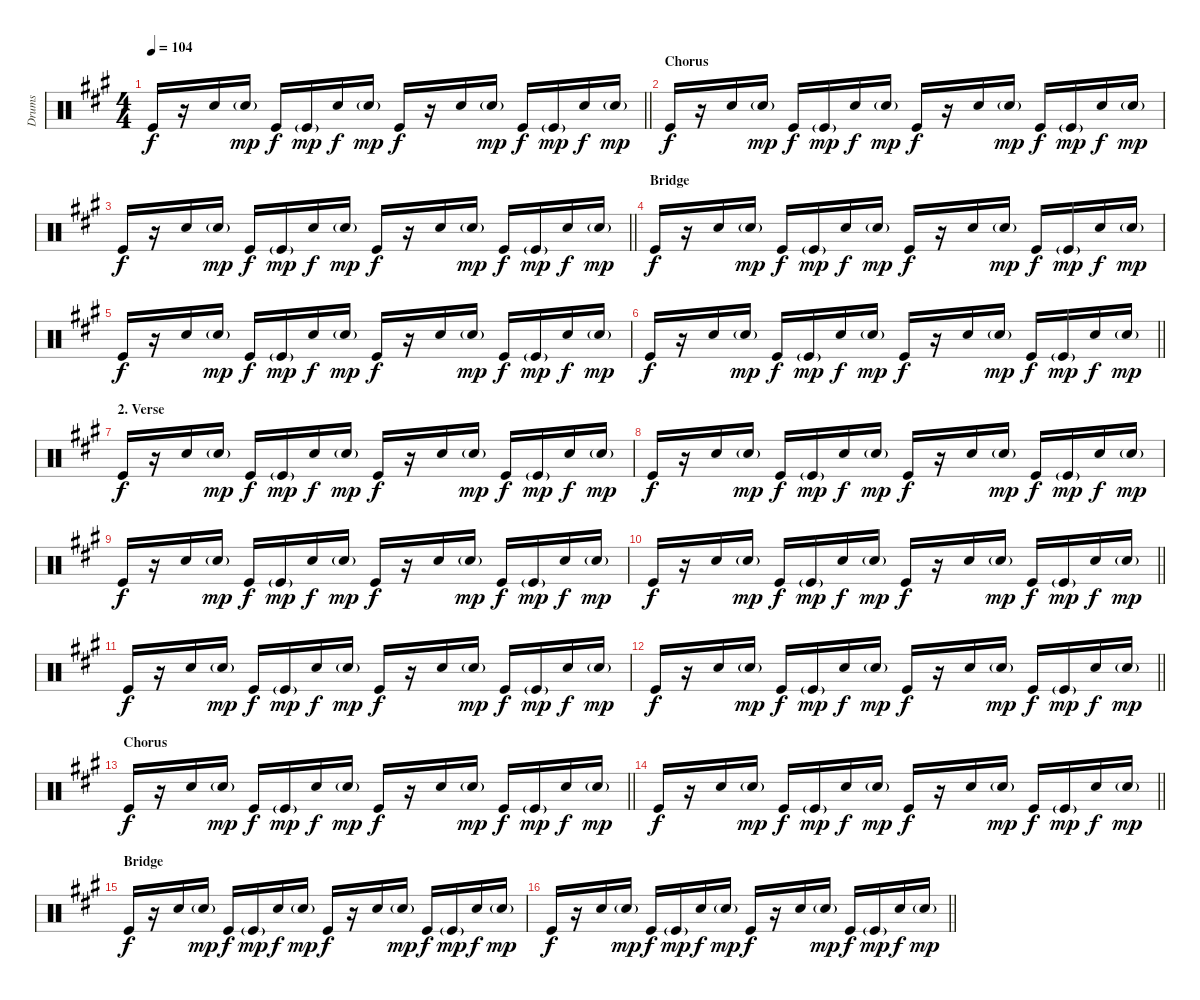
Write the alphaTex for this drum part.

\track ("Drums" "Drums") {instrument percussion}
\staff {score}
\articulation defaults
\ts (4 4)
\tempo 104
\clef neutral
\barLineRight lightlight
\ks a "Kick (hit)".16{dy f}
r.16 "Electric Snare (hit)".16 "Electric Snare (hit)"{g}.16{dy mp} "Kick (hit)".16{dy f} "Kick (hit)"{g}.16{dy mp} "Electric Snare (hit)".16{dy f} "Electric Snare (hit)"{g}.16{dy mp} "Kick (hit)".16{dy f} r.16 "Electric Snare (hit)".16 "Electric Snare (hit)"{g}.16{dy mp} "Kick (hit)".16{dy f} "Kick (hit)"{g}.16{dy mp} "Electric Snare (hit)".16{dy f} "Electric Snare (hit)"{g}.16{dy mp} |
\section ("" "Chorus")
"Kick (hit)".16{dy f} r.16 "Electric Snare (hit)".16 "Electric Snare (hit)"{g}.16{dy mp} "Kick (hit)".16{dy f} "Kick (hit)"{g}.16{dy mp} "Electric Snare (hit)".16{dy f} "Electric Snare (hit)"{g}.16{dy mp} "Kick (hit)".16{dy f} r.16 "Electric Snare (hit)".16 "Electric Snare (hit)"{g}.16{dy mp} "Kick (hit)".16{dy f} "Kick (hit)"{g}.16{dy mp} "Electric Snare (hit)".16{dy f} "Electric Snare (hit)"{g}.16{dy mp} |
\barLineRight lightlight "Kick (hit)".16{dy f}
r.16 "Electric Snare (hit)".16 "Electric Snare (hit)"{g}.16{dy mp} "Kick (hit)".16{dy f} "Kick (hit)"{g}.16{dy mp} "Electric Snare (hit)".16{dy f} "Electric Snare (hit)"{g}.16{dy mp} "Kick (hit)".16{dy f} r.16 "Electric Snare (hit)".16 "Electric Snare (hit)"{g}.16{dy mp} "Kick (hit)".16{dy f} "Kick (hit)"{g}.16{dy mp} "Electric Snare (hit)".16{dy f} "Electric Snare (hit)"{g}.16{dy mp} |
\section ("" "Bridge")
"Kick (hit)".16{dy f} r.16 "Electric Snare (hit)".16 "Electric Snare (hit)"{g}.16{dy mp} "Kick (hit)".16{dy f} "Kick (hit)"{g}.16{dy mp} "Electric Snare (hit)".16{dy f} "Electric Snare (hit)"{g}.16{dy mp} "Kick (hit)".16{dy f} r.16 "Electric Snare (hit)".16 "Electric Snare (hit)"{g}.16{dy mp} "Kick (hit)".16{dy f} "Kick (hit)"{g}.16{dy mp} "Electric Snare (hit)".16{dy f} "Electric Snare (hit)"{g}.16{dy mp} |
"Kick (hit)".16{dy f} r.16 "Electric Snare (hit)".16 "Electric Snare (hit)"{g}.16{dy mp} "Kick (hit)".16{dy f} "Kick (hit)"{g}.16{dy mp} "Electric Snare (hit)".16{dy f} "Electric Snare (hit)"{g}.16{dy mp} "Kick (hit)".16{dy f} r.16 "Electric Snare (hit)".16 "Electric Snare (hit)"{g}.16{dy mp} "Kick (hit)".16{dy f} "Kick (hit)"{g}.16{dy mp} "Electric Snare (hit)".16{dy f} "Electric Snare (hit)"{g}.16{dy mp} |
\barLineRight lightlight "Kick (hit)".16{dy f}
r.16 "Electric Snare (hit)".16 "Electric Snare (hit)"{g}.16{dy mp} "Kick (hit)".16{dy f} "Kick (hit)"{g}.16{dy mp} "Electric Snare (hit)".16{dy f} "Electric Snare (hit)"{g}.16{dy mp} "Kick (hit)".16{dy f} r.16 "Electric Snare (hit)".16 "Electric Snare (hit)"{g}.16{dy mp} "Kick (hit)".16{dy f} "Kick (hit)"{g}.16{dy mp} "Electric Snare (hit)".16{dy f} "Electric Snare (hit)"{g}.16{dy mp} |
\section ("" "2. Verse")
"Kick (hit)".16{dy f} r.16 "Electric Snare (hit)".16 "Electric Snare (hit)"{g}.16{dy mp} "Kick (hit)".16{dy f} "Kick (hit)"{g}.16{dy mp} "Electric Snare (hit)".16{dy f} "Electric Snare (hit)"{g}.16{dy mp} "Kick (hit)".16{dy f} r.16 "Electric Snare (hit)".16 "Electric Snare (hit)"{g}.16{dy mp} "Kick (hit)".16{dy f} "Kick (hit)"{g}.16{dy mp} "Electric Snare (hit)".16{dy f} "Electric Snare (hit)"{g}.16{dy mp} |
"Kick (hit)".16{dy f} r.16 "Electric Snare (hit)".16 "Electric Snare (hit)"{g}.16{dy mp} "Kick (hit)".16{dy f} "Kick (hit)"{g}.16{dy mp} "Electric Snare (hit)".16{dy f} "Electric Snare (hit)"{g}.16{dy mp} "Kick (hit)".16{dy f} r.16 "Electric Snare (hit)".16 "Electric Snare (hit)"{g}.16{dy mp} "Kick (hit)".16{dy f} "Kick (hit)"{g}.16{dy mp} "Electric Snare (hit)".16{dy f} "Electric Snare (hit)"{g}.16{dy mp} |
"Kick (hit)".16{dy f} r.16 "Electric Snare (hit)".16 "Electric Snare (hit)"{g}.16{dy mp} "Kick (hit)".16{dy f} "Kick (hit)"{g}.16{dy mp} "Electric Snare (hit)".16{dy f} "Electric Snare (hit)"{g}.16{dy mp} "Kick (hit)".16{dy f} r.16 "Electric Snare (hit)".16 "Electric Snare (hit)"{g}.16{dy mp} "Kick (hit)".16{dy f} "Kick (hit)"{g}.16{dy mp} "Electric Snare (hit)".16{dy f} "Electric Snare (hit)"{g}.16{dy mp} |
\barLineRight lightlight "Kick (hit)".16{dy f}
r.16 "Electric Snare (hit)".16 "Electric Snare (hit)"{g}.16{dy mp} "Kick (hit)".16{dy f} "Kick (hit)"{g}.16{dy mp} "Electric Snare (hit)".16{dy f} "Electric Snare (hit)"{g}.16{dy mp} "Kick (hit)".16{dy f} r.16 "Electric Snare (hit)".16 "Electric Snare (hit)"{g}.16{dy mp} "Kick (hit)".16{dy f} "Kick (hit)"{g}.16{dy mp} "Electric Snare (hit)".16{dy f} "Electric Snare (hit)"{g}.16{dy mp} |
"Kick (hit)".16{dy f} r.16 "Electric Snare (hit)".16 "Electric Snare (hit)"{g}.16{dy mp} "Kick (hit)".16{dy f} "Kick (hit)"{g}.16{dy mp} "Electric Snare (hit)".16{dy f} "Electric Snare (hit)"{g}.16{dy mp} "Kick (hit)".16{dy f} r.16 "Electric Snare (hit)".16 "Electric Snare (hit)"{g}.16{dy mp} "Kick (hit)".16{dy f} "Kick (hit)"{g}.16{dy mp} "Electric Snare (hit)".16{dy f} "Electric Snare (hit)"{g}.16{dy mp} |
\barLineRight lightlight "Kick (hit)".16{dy f}
r.16 "Electric Snare (hit)".16 "Electric Snare (hit)"{g}.16{dy mp} "Kick (hit)".16{dy f} "Kick (hit)"{g}.16{dy mp} "Electric Snare (hit)".16{dy f} "Electric Snare (hit)"{g}.16{dy mp} "Kick (hit)".16{dy f} r.16 "Electric Snare (hit)".16 "Electric Snare (hit)"{g}.16{dy mp} "Kick (hit)".16{dy f} "Kick (hit)"{g}.16{dy mp} "Electric Snare (hit)".16{dy f} "Electric Snare (hit)"{g}.16{dy mp} |
\section ("" "Chorus")
\barLineRight lightlight "Kick (hit)".16{dy f}
r.16 "Electric Snare (hit)".16 "Electric Snare (hit)"{g}.16{dy mp} "Kick (hit)".16{dy f} "Kick (hit)"{g}.16{dy mp} "Electric Snare (hit)".16{dy f} "Electric Snare (hit)"{g}.16{dy mp} "Kick (hit)".16{dy f} r.16 "Electric Snare (hit)".16 "Electric Snare (hit)"{g}.16{dy mp} "Kick (hit)".16{dy f} "Kick (hit)"{g}.16{dy mp} "Electric Snare (hit)".16{dy f} "Electric Snare (hit)"{g}.16{dy mp} |
\barLineRight lightlight "Kick (hit)".16{dy f}
r.16 "Electric Snare (hit)".16 "Electric Snare (hit)"{g}.16{dy mp} "Kick (hit)".16{dy f} "Kick (hit)"{g}.16{dy mp} "Electric Snare (hit)".16{dy f} "Electric Snare (hit)"{g}.16{dy mp} "Kick (hit)".16{dy f} r.16 "Electric Snare (hit)".16 "Electric Snare (hit)"{g}.16{dy mp} "Kick (hit)".16{dy f} "Kick (hit)"{g}.16{dy mp} "Electric Snare (hit)".16{dy f} "Electric Snare (hit)"{g}.16{dy mp} |
\section ("" "Bridge")
"Kick (hit)".16{dy f} r.16 "Electric Snare (hit)".16 "Electric Snare (hit)"{g}.16{dy mp} "Kick (hit)".16{dy f} "Kick (hit)"{g}.16{dy mp} "Electric Snare (hit)".16{dy f} "Electric Snare (hit)"{g}.16{dy mp} "Kick (hit)".16{dy f} r.16 "Electric Snare (hit)".16 "Electric Snare (hit)"{g}.16{dy mp} "Kick (hit)".16{dy f} "Kick (hit)"{g}.16{dy mp} "Electric Snare (hit)".16{dy f} "Electric Snare (hit)"{g}.16{dy mp} |
\barLineRight lightlight "Kick (hit)".16{dy f}
r.16 "Electric Snare (hit)".16 "Electric Snare (hit)"{g}.16{dy mp} "Kick (hit)".16{dy f} "Kick (hit)"{g}.16{dy mp} "Electric Snare (hit)".16{dy f} "Electric Snare (hit)"{g}.16{dy mp} "Kick (hit)".16{dy f} r.16 "Electric Snare (hit)".16 "Electric Snare (hit)"{g}.16{dy mp} "Kick (hit)".16{dy f} "Kick (hit)"{g}.16{dy mp} "Electric Snare (hit)".16{dy f} "Electric Snare (hit)"{g}.16{dy mp}
